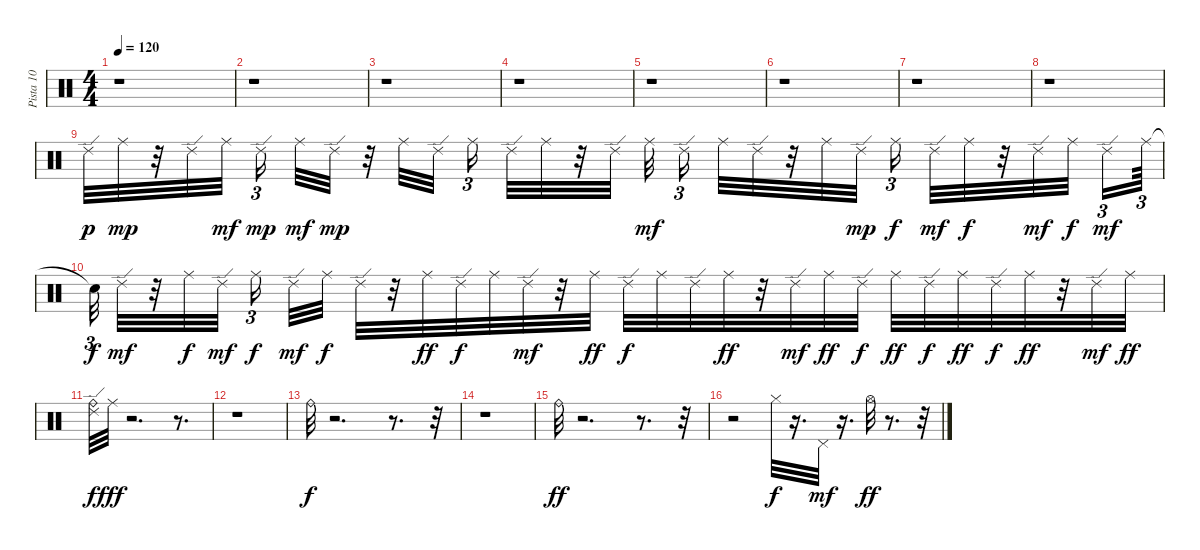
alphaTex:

\track ("Pista 10" "Pista 10") {instrument percussion}
\staff {score}
\articulation defaults
\ts (4 4)
\tempo 120
\clef neutral
\ks c
r.1{dy p} |
r.1 |
r.1 |
r.1 |
r.1 |
r.1 |
r.1 |
r.1 |
"Ride (edge) 2".32 "Ride (middle)".32{dy mp} r.32 "Ride (edge) 2".32 "Ride (middle)".32{dy mf beam splitsecondary} "Ride (edge) 2".16{tu (3 2) dy mp beam splitsecondary} "Ride (middle)".32{dy mf} "Ride (edge) 2".32{dy mp} r.32 "Ride (middle)".32 "Ride (edge) 2".32{beam splitsecondary} "Ride (middle)".16{tu (3 2) beam splitsecondary} "Ride (edge) 2".32 "Ride (middle)".32 r.32 "Ride (edge) 2".32 "Ride (middle)".32{dy mf beam splitsecondary} "Ride (edge) 2".16{tu (3 2) beam splitsecondary} "Ride (middle)".32 "Ride (edge) 2".32 r.32 "Ride (middle)".32 "Ride (edge) 2".32{dy mp} "Ride (middle)".16{tu (3 2) dy f beam splitsecondary} "Ride (edge) 2".32{dy mf} "Ride (middle)".32{dy f} r.32 "Ride (edge) 2".32{dy mf} "Ride (middle)".32{dy f beam splitsecondary} "Ride (edge) 2".16{tu (3 2) dy mf} "Ride (middle)".64{tu (3 2)} |
"Snare (hit)"{t}.32{tu (3 2) dy f} "Ride (edge) 2".32{dy mf} r.32 "Ride (middle)".32{dy f} "Ride (edge) 2".32{dy mf beam splitsecondary} "Ride (middle)".16{tu (3 2) dy f beam splitsecondary} "Ride (edge) 2".32{dy mf} "Ride (middle)".32{dy f} "Ride (edge) 2".32 r.32 "Ride (middle)".32{dy ff} "Ride (edge) 2".32{dy f} "Ride (middle)".32 "Ride (edge) 2".32{dy mf} r.32 "Ride (middle)".32{dy ff} "Ride (edge) 2".32{dy f} "Ride (middle)".32 "Ride (edge) 2".32 "Ride (middle)".32{dy ff} r.32 "Ride (edge) 2".32{dy mf} "Ride (middle)".32{dy ff} "Ride (edge) 2".32{dy f} "Ride (middle)".32{dy ff} "Ride (edge) 2".32{dy f} "Ride (middle)".32{dy ff} "Ride (edge) 2".32{dy f} "Ride (middle)".32{dy ff} r.32 "Ride (edge) 2".32{dy mf} "Ride (middle)".32{dy ff} |
("Ride (edge) 2" "Ride (bell)").32{dy f} "Ride (middle)".32{dy fff} r.2{d} r.8{d} |
r.1 |
"Ride (bell)".32{dy f} r.2{d} r.8{d} r.32 |
r.1 |
"Ride (bell)".32{dy ff} r.2{d} r.8{d} r.32 |
r.2 "Hi-Hat (closed)".32{dy f} r.16{d} "Pedal Hi-Hat (hit)".32{dy mf} r.16{d} "Hi-Hat (open)".32{dy ff} r.8{d} r.32
